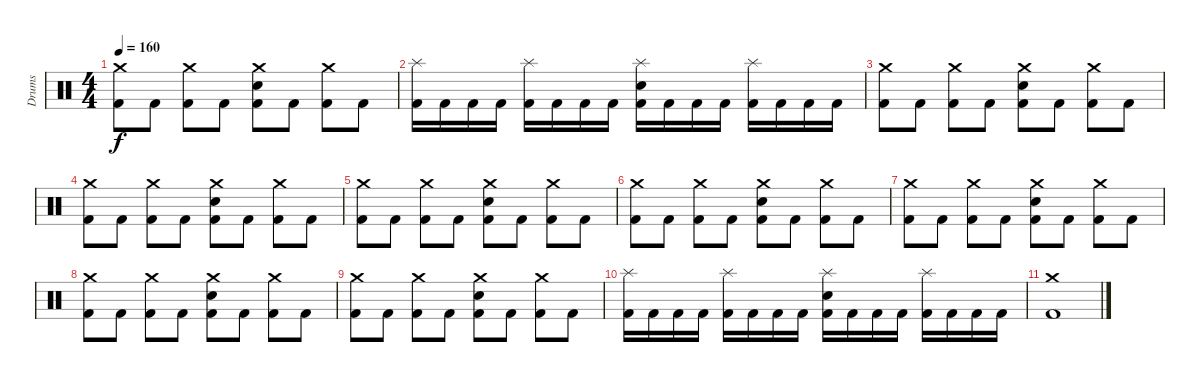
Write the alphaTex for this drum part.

\track ("Drums" "Drums") {instrument percussion}
\staff {score}
\articulation defaults
\ts (4 4)
\tempo 160
\clef neutral
\ks c
("Crash medium (hit)" "Kick (hit) 2").8{dy f} "Kick (hit) 2".8 ("Crash medium (hit)" "Kick (hit) 2").8 "Kick (hit) 2".8 ("Crash medium (hit)" "Snare (hit) 2" "Kick (hit) 2").8 "Kick (hit) 2".8 ("Crash medium (hit)" "Kick (hit) 2").8 "Kick (hit) 2".8 |
("Splash (hit)" "Kick (hit) 2").16 "Kick (hit) 2".16 "Kick (hit) 2".16 "Kick (hit) 2".16 ("Splash (hit)" "Kick (hit) 2").16 "Kick (hit) 2".16 "Kick (hit) 2".16 "Kick (hit) 2".16 ("Splash (hit)" "Snare (hit) 2" "Kick (hit) 2").16 "Kick (hit) 2".16 "Kick (hit) 2".16 "Kick (hit) 2".16 ("Splash (hit)" "Kick (hit) 2").16 "Kick (hit) 2".16 "Kick (hit) 2".16 "Kick (hit) 2".16 |
("Crash medium (hit)" "Kick (hit) 2").8 "Kick (hit) 2".8 ("Crash medium (hit)" "Kick (hit) 2").8 "Kick (hit) 2".8 ("Crash medium (hit)" "Snare (hit) 2" "Kick (hit) 2").8 "Kick (hit) 2".8 ("Crash medium (hit)" "Kick (hit) 2").8 "Kick (hit) 2".8 |
("Crash medium (hit)" "Kick (hit) 2").8 "Kick (hit) 2".8 ("Crash medium (hit)" "Kick (hit) 2").8 "Kick (hit) 2".8 ("Crash medium (hit)" "Snare (hit) 2" "Kick (hit) 2").8 "Kick (hit) 2".8 ("Crash medium (hit)" "Kick (hit) 2").8 "Kick (hit) 2".8 |
("Crash medium (hit)" "Kick (hit) 2").8 "Kick (hit) 2".8 ("Crash medium (hit)" "Kick (hit) 2").8 "Kick (hit) 2".8 ("Crash medium (hit)" "Snare (hit) 2" "Kick (hit) 2").8 "Kick (hit) 2".8 ("Crash medium (hit)" "Kick (hit) 2").8 "Kick (hit) 2".8 |
("Crash medium (hit)" "Kick (hit) 2").8 "Kick (hit) 2".8 ("Crash medium (hit)" "Kick (hit) 2").8 "Kick (hit) 2".8 ("Crash medium (hit)" "Snare (hit) 2" "Kick (hit) 2").8 "Kick (hit) 2".8 ("Crash medium (hit)" "Kick (hit) 2").8 "Kick (hit) 2".8 |
("Crash medium (hit)" "Kick (hit) 2").8 "Kick (hit) 2".8 ("Crash medium (hit)" "Kick (hit) 2").8 "Kick (hit) 2".8 ("Crash medium (hit)" "Snare (hit) 2" "Kick (hit) 2").8 "Kick (hit) 2".8 ("Crash medium (hit)" "Kick (hit) 2").8 "Kick (hit) 2".8 |
("Crash medium (hit)" "Kick (hit) 2").8 "Kick (hit) 2".8 ("Crash medium (hit)" "Kick (hit) 2").8 "Kick (hit) 2".8 ("Crash medium (hit)" "Snare (hit) 2" "Kick (hit) 2").8 "Kick (hit) 2".8 ("Crash medium (hit)" "Kick (hit) 2").8 "Kick (hit) 2".8 |
("Crash medium (hit)" "Kick (hit) 2").8 "Kick (hit) 2".8 ("Crash medium (hit)" "Kick (hit) 2").8 "Kick (hit) 2".8 ("Crash medium (hit)" "Snare (hit) 2" "Kick (hit) 2").8 "Kick (hit) 2".8 ("Crash medium (hit)" "Kick (hit) 2").8 "Kick (hit) 2".8 |
("Splash (hit)" "Kick (hit) 2").16 "Kick (hit) 2".16 "Kick (hit) 2".16 "Kick (hit) 2".16 ("Splash (hit)" "Kick (hit) 2").16 "Kick (hit) 2".16 "Kick (hit) 2".16 "Kick (hit) 2".16 ("Splash (hit)" "Snare (hit) 2" "Kick (hit) 2").16 "Kick (hit) 2".16 "Kick (hit) 2".16 "Kick (hit) 2".16 ("Splash (hit)" "Kick (hit) 2").16 "Kick (hit) 2".16 "Kick (hit) 2".16 "Kick (hit) 2".16 |
("Crash medium (hit)" "Kick (hit) 2").1
